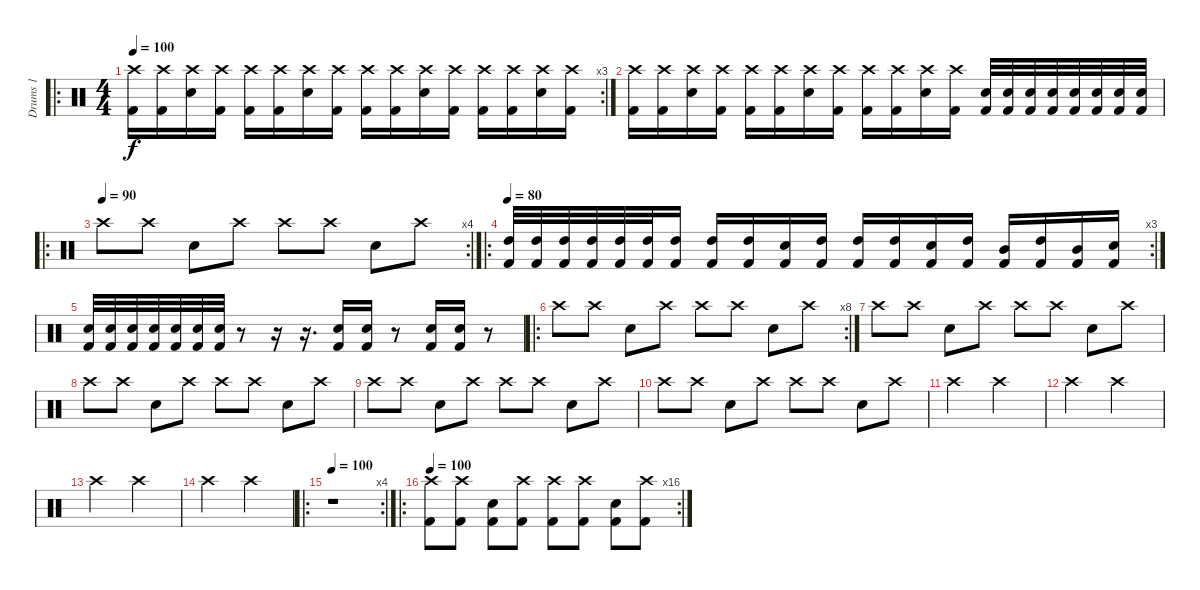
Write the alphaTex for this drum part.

\track ("Drums 1" "Drums 1") {instrument percussion}
\staff {score}
\articulation defaults
\ro
\rc 3
\ts (4 4)
\tempo 100
\clef neutral
\ks c
("Crash high (hit)" "Kick (hit) 2").16{dy f} ("Crash high (hit)" "Kick (hit) 2").16 ("Crash high (hit)" "Electric Snare (hit)").16 ("Crash high (hit)" "Kick (hit) 2").16 ("Crash high (hit)" "Kick (hit) 2").16 ("Crash high (hit)" "Kick (hit) 2").16 ("Crash high (hit)" "Electric Snare (hit)").16 ("Crash high (hit)" "Kick (hit) 2").16 ("Crash high (hit)" "Kick (hit) 2").16 ("Crash high (hit)" "Kick (hit) 2").16 ("Crash high (hit)" "Electric Snare (hit)").16 ("Crash high (hit)" "Kick (hit) 2").16 ("Crash high (hit)" "Kick (hit) 2").16 ("Crash high (hit)" "Kick (hit) 2").16 ("Crash high (hit)" "Electric Snare (hit)").16 ("Crash high (hit)" "Kick (hit) 2").16 |
("Crash high (hit)" "Kick (hit) 2").16 ("Crash high (hit)" "Kick (hit) 2").16 ("Crash high (hit)" "Electric Snare (hit)").16 ("Crash high (hit)" "Kick (hit) 2").16 ("Crash high (hit)" "Kick (hit) 2").16 ("Crash high (hit)" "Kick (hit) 2").16 ("Crash high (hit)" "Electric Snare (hit)").16 ("Crash high (hit)" "Kick (hit) 2").16 ("Crash high (hit)" "Kick (hit) 2").16 ("Crash high (hit)" "Kick (hit) 2").16 ("Crash high (hit)" "Electric Snare (hit)").16 ("Crash high (hit)" "Kick (hit) 2").16 ("Kick (hit) 2" "Electric Snare (hit)").32 ("Kick (hit) 2" "Electric Snare (hit)").32 ("Kick (hit) 2" "Electric Snare (hit)").32 ("Kick (hit) 2" "Electric Snare (hit)").32 ("Kick (hit) 2" "Electric Snare (hit)").32 ("Kick (hit) 2" "Electric Snare (hit)").32 ("Kick (hit) 2" "Electric Snare (hit)").32 ("Kick (hit) 2" "Electric Snare (hit)").32 |
\ro
\rc 4
\tempo (90)
"Crash high (hit)".8 "Crash high (hit)".8 "Electric Snare (hit)".8 "Crash high (hit)".8 "Crash high (hit)".8 "Crash high (hit)".8 "Electric Snare (hit)".8 "Crash high (hit)".8 |
\ro
\rc 3
\tempo 80
("High Tom (hit)" "Kick (hit) 2").32 ("High Tom (hit)" "Kick (hit) 2").32 ("High Tom (hit)" "Kick (hit) 2").32 ("High Tom (hit)" "Kick (hit) 2").32 ("High Tom (hit)" "Kick (hit) 2").32 ("High Tom (hit)" "Kick (hit) 2").32 ("High Tom (hit)" "Kick (hit) 2").16 ("High Tom (hit)" "Kick (hit) 2").16 ("High Tom (hit)" "Kick (hit) 2").16 ("Electric Snare (hit)" "Kick (hit) 2").16 ("High Tom (hit)" "Kick (hit) 2").16 ("High Tom (hit)" "Kick (hit) 2").16 ("High Tom (hit)" "Kick (hit) 2").16 ("Electric Snare (hit)" "Kick (hit) 2").16 ("High Tom (hit)" "Kick (hit) 2").16 ("Mid Tom (hit)" "Kick (hit) 2").16 ("High Tom (hit)" "Kick (hit) 2").16 ("Mid Tom (hit)" "Kick (hit) 2").16 ("Electric Snare (hit)" "Kick (hit) 2").16 |
("Kick (hit) 2" "Electric Snare (hit)").32 ("Kick (hit) 2" "Electric Snare (hit)").32 ("Kick (hit) 2" "Electric Snare (hit)").32 ("Kick (hit) 2" "Electric Snare (hit)").32 ("Kick (hit) 2" "Electric Snare (hit)").32 ("Kick (hit) 2" "Electric Snare (hit)").32 ("Kick (hit) 2" "Electric Snare (hit)").32 r.8 r.16 r.16{d} ("Kick (hit) 2" "Electric Snare (hit)").16 ("Kick (hit) 2" "Electric Snare (hit)").16 r.8 ("Kick (hit) 2" "Electric Snare (hit)").16 ("Kick (hit) 2" "Electric Snare (hit)").16 r.8 |
\ro
\rc 8 "Crash high (hit)".8 "Crash high (hit)".8 "Electric Snare (hit)".8 "Crash high (hit)".8 "Crash high (hit)".8 "Crash high (hit)".8 "Electric Snare (hit)".8 "Crash high (hit)".8
|
"Crash high (hit)".8 "Crash high (hit)".8 "Electric Snare (hit)".8 "Crash high (hit)".8 "Crash high (hit)".8 "Crash high (hit)".8 "Electric Snare (hit)".8 "Crash high (hit)".8 |
"Crash high (hit)".8 "Crash high (hit)".8 "Electric Snare (hit)".8 "Crash high (hit)".8 "Crash high (hit)".8 "Crash high (hit)".8 "Electric Snare (hit)".8 "Crash high (hit)".8 |
"Crash high (hit)".8 "Crash high (hit)".8 "Electric Snare (hit)".8 "Crash high (hit)".8 "Crash high (hit)".8 "Crash high (hit)".8 "Electric Snare (hit)".8 "Crash high (hit)".8 |
"Crash high (hit)".8 "Crash high (hit)".8 "Electric Snare (hit)".8 "Crash high (hit)".8 "Crash high (hit)".8 "Crash high (hit)".8 "Electric Snare (hit)".8 "Crash high (hit)".8 |
"Crash high (hit)".2 "Crash high (hit)".2 |
"Crash high (hit)".2 "Crash high (hit)".2 |
"Crash high (hit)".2 "Crash high (hit)".2 |
"Crash high (hit)".2 "Crash high (hit)".2 |
\ro
\rc 4
\tempo 100
r.1 |
\ro
\rc 16
\tempo 100
("Crash high (hit)" "Kick (hit) 2").8 ("Crash high (hit)" "Kick (hit) 2").8 ("Electric Snare (hit)" "Kick (hit) 2").8 ("Crash high (hit)" "Kick (hit) 2").8 ("Crash high (hit)" "Kick (hit) 2").8 ("Crash high (hit)" "Kick (hit) 2").8 ("Electric Snare (hit)" "Kick (hit) 2").8 ("Crash high (hit)" "Kick (hit) 2").8
